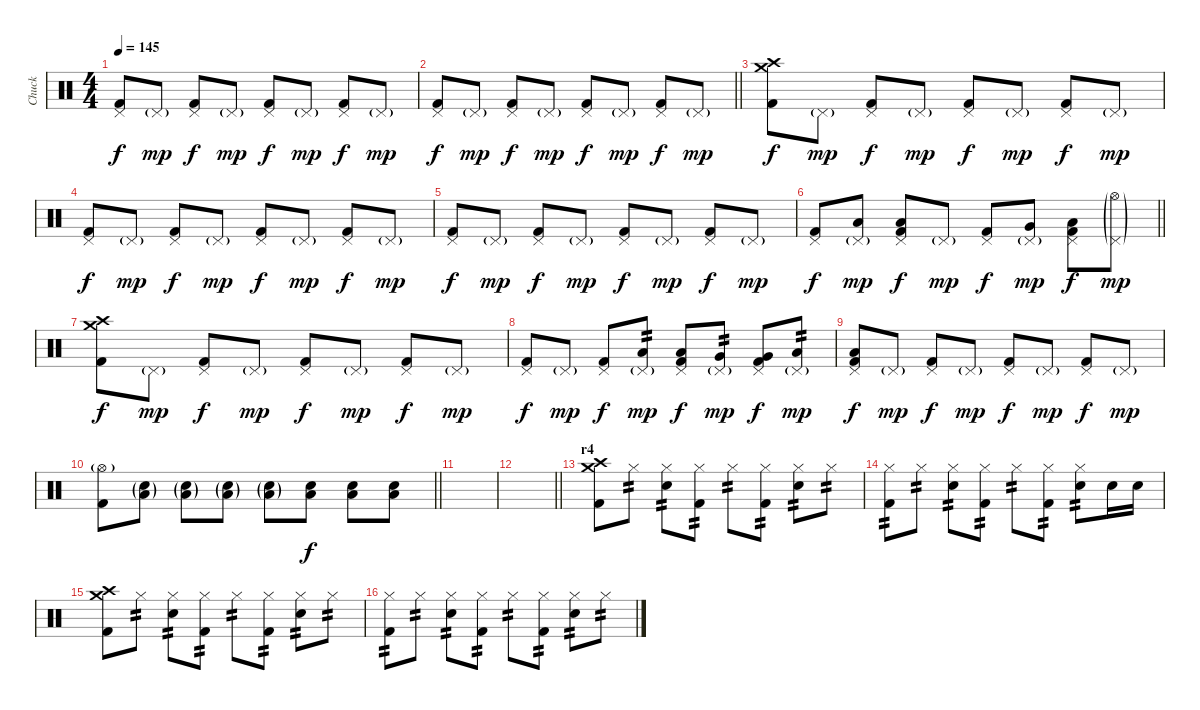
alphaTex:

\track ("Chuck" "Chuck") {instrument percussion}
\staff {score}
\articulation defaults
\ts (4 4)
\tempo 145
\clef neutral
\ks c
("Pedal Hi-Hat (hit)" "Kick (hit) 2").8{dy f} "Pedal Hi-Hat (hit)"{g}.8{dy mp} ("Pedal Hi-Hat (hit)" "Kick (hit) 2").8{dy f} "Pedal Hi-Hat (hit)"{g}.8{dy mp} ("Pedal Hi-Hat (hit)" "Kick (hit) 2").8{dy f} "Pedal Hi-Hat (hit)"{g}.8{dy mp} ("Pedal Hi-Hat (hit)" "Kick (hit) 2").8{dy f} "Pedal Hi-Hat (hit)"{g}.8{dy mp} |
\barLineRight lightlight
("Pedal Hi-Hat (hit)" "Kick (hit) 2").8{dy f} "Pedal Hi-Hat (hit)"{g}.8{dy mp} ("Pedal Hi-Hat (hit)" "Kick (hit) 2").8{dy f} "Pedal Hi-Hat (hit)"{g}.8{dy mp} ("Pedal Hi-Hat (hit)" "Kick (hit) 2").8{dy f} "Pedal Hi-Hat (hit)"{g}.8{dy mp} ("Pedal Hi-Hat (hit)" "Kick (hit) 2").8{dy f} "Pedal Hi-Hat (hit)"{g}.8{dy mp} |
("Crash medium (hit)" "Crash high (hit)" "Kick (hit) 2").8{dy f} "Pedal Hi-Hat (hit)"{g}.8{dy mp} ("Pedal Hi-Hat (hit)" "Kick (hit) 2").8{dy f} "Pedal Hi-Hat (hit)"{g}.8{dy mp} ("Pedal Hi-Hat (hit)" "Kick (hit) 2").8{dy f} "Pedal Hi-Hat (hit)"{g}.8{dy mp} ("Pedal Hi-Hat (hit)" "Kick (hit) 2").8{dy f} "Pedal Hi-Hat (hit)"{g}.8{dy mp} |
("Pedal Hi-Hat (hit)" "Kick (hit) 2").8{dy f} "Pedal Hi-Hat (hit)"{g}.8{dy mp} ("Pedal Hi-Hat (hit)" "Kick (hit) 2").8{dy f} "Pedal Hi-Hat (hit)"{g}.8{dy mp} ("Pedal Hi-Hat (hit)" "Kick (hit) 2").8{dy f} "Pedal Hi-Hat (hit)"{g}.8{dy mp} ("Pedal Hi-Hat (hit)" "Kick (hit) 2").8{dy f} "Pedal Hi-Hat (hit)"{g}.8{dy mp} |
("Pedal Hi-Hat (hit)" "Kick (hit) 2").8{dy f} "Pedal Hi-Hat (hit)"{g}.8{dy mp} ("Pedal Hi-Hat (hit)" "Kick (hit) 2").8{dy f} "Pedal Hi-Hat (hit)"{g}.8{dy mp} ("Pedal Hi-Hat (hit)" "Kick (hit) 2").8{dy f} "Pedal Hi-Hat (hit)"{g}.8{dy mp} ("Pedal Hi-Hat (hit)" "Kick (hit) 2").8{dy f} "Pedal Hi-Hat (hit)"{g}.8{dy mp} |
\barLineRight lightlight
("Pedal Hi-Hat (hit)" "Kick (hit) 2").8{dy f} ("Low Tom (hit)" "Pedal Hi-Hat (hit)"{g}).8{dy mp} ("Low Tom (hit)" "Pedal Hi-Hat (hit)" "Kick (hit) 2").8{dy f} "Pedal Hi-Hat (hit)"{g}.8{dy mp} ("Pedal Hi-Hat (hit)" "Kick (hit) 2").8{dy f} ("Very Low Tom (hit)" "Pedal Hi-Hat (hit)"{g}).8{dy mp} ("Low Floor Tom (hit)" "Pedal Hi-Hat (hit)" "Kick (hit) 2").8{dy f} ("Hi-Hat (open)"{g} "Pedal Hi-Hat (hit)"{g}).8{dy mp} |
("Crash medium (hit)" "Crash high (hit)" "Kick (hit) 2").8{dy f} "Pedal Hi-Hat (hit)"{g}.8{dy mp} ("Pedal Hi-Hat (hit)" "Kick (hit) 2").8{dy f} "Pedal Hi-Hat (hit)"{g}.8{dy mp} ("Pedal Hi-Hat (hit)" "Kick (hit) 2").8{dy f} "Pedal Hi-Hat (hit)"{g}.8{dy mp} ("Pedal Hi-Hat (hit)" "Kick (hit) 2").8{dy f} "Pedal Hi-Hat (hit)"{g}.8{dy mp} |
("Pedal Hi-Hat (hit)" "Kick (hit) 2").8{dy f} "Pedal Hi-Hat (hit)"{g}.8{dy mp} ("Pedal Hi-Hat (hit)" "Kick (hit) 2").8{dy f} ("Pedal Hi-Hat (hit)"{g} "Low Tom (hit)").8{tp 2 dy mp} ("Pedal Hi-Hat (hit)" "Low Tom (hit)" "Kick (hit) 2").8{dy f} ("Pedal Hi-Hat (hit)"{g} "Very Low Tom (hit)").8{tp 2 dy mp} ("Pedal Hi-Hat (hit)" "Very Low Tom (hit)" "Kick (hit) 2").8{dy f} ("Pedal Hi-Hat (hit)"{g} "Low Floor Tom (hit)").8{tp 2 dy mp} |
("Pedal Hi-Hat (hit)" "Low Floor Tom (hit)" "Kick (hit) 2").8{dy f} "Pedal Hi-Hat (hit)"{g}.8{dy mp} ("Pedal Hi-Hat (hit)" "Kick (hit) 2").8{dy f} "Pedal Hi-Hat (hit)"{g}.8{dy mp} ("Pedal Hi-Hat (hit)" "Kick (hit) 2").8{dy f} "Pedal Hi-Hat (hit)"{g}.8{dy mp} ("Pedal Hi-Hat (hit)" "Kick (hit) 2").8{dy f} "Pedal Hi-Hat (hit)"{g}.8{dy mp} |
\barLineRight lightlight
("Hi-Hat (open)"{g} "Kick (hit) 2").8 ("Low Floor Tom (hit)"{g} "Snare (hit) 2"{g}).8 ("Low Floor Tom (hit)"{g} "Snare (hit) 2"{g}).8 ("Low Floor Tom (hit)"{g} "Snare (hit) 2"{g}).8 ("Low Floor Tom (hit)"{g} "Snare (hit) 2"{g}).8 ("Low Floor Tom (hit)" "Snare (hit) 2").8{dy f} ("Low Floor Tom (hit)" "Snare (hit) 2").8 ("Low Floor Tom (hit)" "Snare (hit) 2").8 |
|
\barLineRight lightlight
|
\section ("" "r4")
("Crash medium (hit)" "Crash high (hit)" "Kick (hit) 2").8 "Hi-Hat (closed)".8{tp 2} ("Hi-Hat (closed)" "Snare (hit) 2").8{tp 2} ("Hi-Hat (closed)" "Kick (hit) 2").8{tp 2} "Hi-Hat (closed)".8{tp 2} ("Hi-Hat (closed)" "Kick (hit) 2").8{tp 2} ("Hi-Hat (closed)" "Snare (hit) 2").8{tp 2} "Hi-Hat (closed)".8{tp 2} |
("Hi-Hat (closed)" "Kick (hit) 2").8{tp 2} "Hi-Hat (closed)".8{tp 2} ("Hi-Hat (closed)" "Snare (hit) 2").8{tp 2} ("Hi-Hat (closed)" "Kick (hit) 2").8{tp 2} "Hi-Hat (closed)".8{tp 2} ("Hi-Hat (closed)" "Kick (hit) 2").8{tp 2} ("Hi-Hat (closed)" "Snare (hit) 2").8{tp 2} "Snare (hit) 2".16 "Snare (hit) 2".16 |
("Crash medium (hit)" "Crash high (hit)" "Kick (hit) 2").8 "Hi-Hat (closed)".8{tp 2} ("Hi-Hat (closed)" "Snare (hit) 2").8{tp 2} ("Hi-Hat (closed)" "Kick (hit) 2").8{tp 2} "Hi-Hat (closed)".8{tp 2} ("Hi-Hat (closed)" "Kick (hit) 2").8{tp 2} ("Hi-Hat (closed)" "Snare (hit) 2").8{tp 2} "Hi-Hat (closed)".8{tp 2} |
("Hi-Hat (closed)" "Kick (hit) 2").8{tp 2} "Hi-Hat (closed)".8{tp 2} ("Hi-Hat (closed)" "Snare (hit) 2").8{tp 2} ("Hi-Hat (closed)" "Kick (hit) 2").8{tp 2} "Hi-Hat (closed)".8{tp 2} ("Hi-Hat (closed)" "Kick (hit) 2").8{tp 2} ("Hi-Hat (closed)" "Snare (hit) 2").8{tp 2} "Hi-Hat (closed)".8{tp 2}
